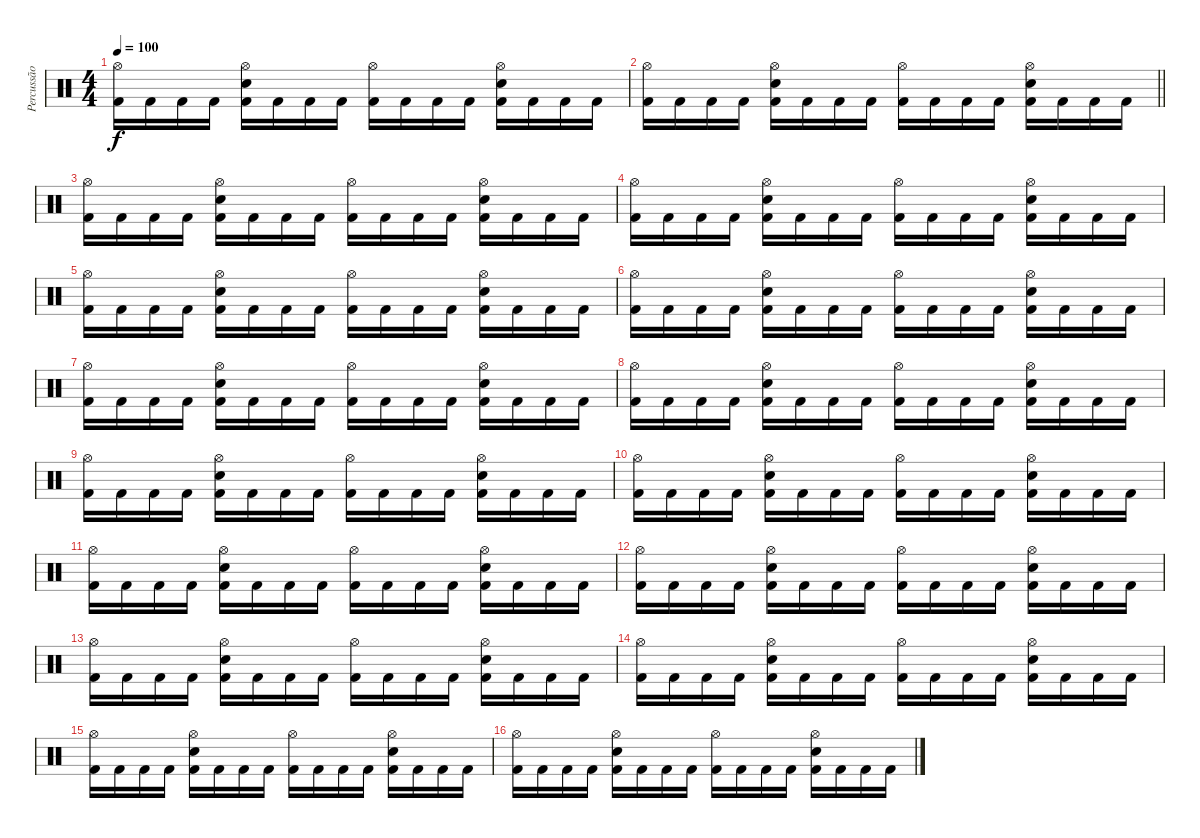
\track ("Percussão" "Percussão") {instrument percussion}
\staff {score}
\articulation defaults
\ts (4 4)
\tempo 100
\clef neutral
\ks c
("Hi-Hat (open)" "Kick (hit) 2").16{dy f} "Kick (hit) 2".16 "Kick (hit) 2".16 "Kick (hit) 2".16 ("Hi-Hat (open)" "Electric Snare (hit)" "Kick (hit) 2").16 "Kick (hit) 2".16 "Kick (hit) 2".16 "Kick (hit) 2".16 ("Hi-Hat (open)" "Kick (hit) 2").16 "Kick (hit) 2".16 "Kick (hit) 2".16 "Kick (hit) 2".16 ("Hi-Hat (open)" "Electric Snare (hit)" "Kick (hit) 2").16 "Kick (hit) 2".16 "Kick (hit) 2".16 "Kick (hit) 2".16 |
\barLineRight lightlight
("Hi-Hat (open)" "Kick (hit) 2").16 "Kick (hit) 2".16 "Kick (hit) 2".16 "Kick (hit) 2".16 ("Hi-Hat (open)" "Electric Snare (hit)" "Kick (hit) 2").16 "Kick (hit) 2".16 "Kick (hit) 2".16 "Kick (hit) 2".16 ("Hi-Hat (open)" "Kick (hit) 2").16 "Kick (hit) 2".16 "Kick (hit) 2".16 "Kick (hit) 2".16 ("Hi-Hat (open)" "Electric Snare (hit)" "Kick (hit) 2").16 "Kick (hit) 2".16 "Kick (hit) 2".16 "Kick (hit) 2".16 |
("Hi-Hat (open)" "Kick (hit) 2").16 "Kick (hit) 2".16 "Kick (hit) 2".16 "Kick (hit) 2".16 ("Hi-Hat (open)" "Electric Snare (hit)" "Kick (hit) 2").16 "Kick (hit) 2".16 "Kick (hit) 2".16 "Kick (hit) 2".16 ("Hi-Hat (open)" "Kick (hit) 2").16 "Kick (hit) 2".16 "Kick (hit) 2".16 "Kick (hit) 2".16 ("Hi-Hat (open)" "Electric Snare (hit)" "Kick (hit) 2").16 "Kick (hit) 2".16 "Kick (hit) 2".16 "Kick (hit) 2".16 |
("Hi-Hat (open)" "Kick (hit) 2").16 "Kick (hit) 2".16 "Kick (hit) 2".16 "Kick (hit) 2".16 ("Hi-Hat (open)" "Electric Snare (hit)" "Kick (hit) 2").16 "Kick (hit) 2".16 "Kick (hit) 2".16 "Kick (hit) 2".16 ("Hi-Hat (open)" "Kick (hit) 2").16 "Kick (hit) 2".16 "Kick (hit) 2".16 "Kick (hit) 2".16 ("Hi-Hat (open)" "Electric Snare (hit)" "Kick (hit) 2").16 "Kick (hit) 2".16 "Kick (hit) 2".16 "Kick (hit) 2".16 |
("Hi-Hat (open)" "Kick (hit) 2").16 "Kick (hit) 2".16 "Kick (hit) 2".16 "Kick (hit) 2".16 ("Hi-Hat (open)" "Electric Snare (hit)" "Kick (hit) 2").16 "Kick (hit) 2".16 "Kick (hit) 2".16 "Kick (hit) 2".16 ("Hi-Hat (open)" "Kick (hit) 2").16 "Kick (hit) 2".16 "Kick (hit) 2".16 "Kick (hit) 2".16 ("Hi-Hat (open)" "Electric Snare (hit)" "Kick (hit) 2").16 "Kick (hit) 2".16 "Kick (hit) 2".16 "Kick (hit) 2".16 |
("Hi-Hat (open)" "Kick (hit) 2").16 "Kick (hit) 2".16 "Kick (hit) 2".16 "Kick (hit) 2".16 ("Hi-Hat (open)" "Electric Snare (hit)" "Kick (hit) 2").16 "Kick (hit) 2".16 "Kick (hit) 2".16 "Kick (hit) 2".16 ("Hi-Hat (open)" "Kick (hit) 2").16 "Kick (hit) 2".16 "Kick (hit) 2".16 "Kick (hit) 2".16 ("Hi-Hat (open)" "Electric Snare (hit)" "Kick (hit) 2").16 "Kick (hit) 2".16 "Kick (hit) 2".16 "Kick (hit) 2".16 |
("Hi-Hat (open)" "Kick (hit) 2").16 "Kick (hit) 2".16 "Kick (hit) 2".16 "Kick (hit) 2".16 ("Hi-Hat (open)" "Electric Snare (hit)" "Kick (hit) 2").16 "Kick (hit) 2".16 "Kick (hit) 2".16 "Kick (hit) 2".16 ("Hi-Hat (open)" "Kick (hit) 2").16 "Kick (hit) 2".16 "Kick (hit) 2".16 "Kick (hit) 2".16 ("Hi-Hat (open)" "Electric Snare (hit)" "Kick (hit) 2").16 "Kick (hit) 2".16 "Kick (hit) 2".16 "Kick (hit) 2".16 |
("Hi-Hat (open)" "Kick (hit) 2").16 "Kick (hit) 2".16 "Kick (hit) 2".16 "Kick (hit) 2".16 ("Hi-Hat (open)" "Electric Snare (hit)" "Kick (hit) 2").16 "Kick (hit) 2".16 "Kick (hit) 2".16 "Kick (hit) 2".16 ("Hi-Hat (open)" "Kick (hit) 2").16 "Kick (hit) 2".16 "Kick (hit) 2".16 "Kick (hit) 2".16 ("Hi-Hat (open)" "Electric Snare (hit)" "Kick (hit) 2").16 "Kick (hit) 2".16 "Kick (hit) 2".16 "Kick (hit) 2".16 |
("Hi-Hat (open)" "Kick (hit) 2").16 "Kick (hit) 2".16 "Kick (hit) 2".16 "Kick (hit) 2".16 ("Hi-Hat (open)" "Electric Snare (hit)" "Kick (hit) 2").16 "Kick (hit) 2".16 "Kick (hit) 2".16 "Kick (hit) 2".16 ("Hi-Hat (open)" "Kick (hit) 2").16 "Kick (hit) 2".16 "Kick (hit) 2".16 "Kick (hit) 2".16 ("Hi-Hat (open)" "Electric Snare (hit)" "Kick (hit) 2").16 "Kick (hit) 2".16 "Kick (hit) 2".16 "Kick (hit) 2".16 |
("Hi-Hat (open)" "Kick (hit) 2").16 "Kick (hit) 2".16 "Kick (hit) 2".16 "Kick (hit) 2".16 ("Hi-Hat (open)" "Electric Snare (hit)" "Kick (hit) 2").16 "Kick (hit) 2".16 "Kick (hit) 2".16 "Kick (hit) 2".16 ("Hi-Hat (open)" "Kick (hit) 2").16 "Kick (hit) 2".16 "Kick (hit) 2".16 "Kick (hit) 2".16 ("Hi-Hat (open)" "Electric Snare (hit)" "Kick (hit) 2").16 "Kick (hit) 2".16 "Kick (hit) 2".16 "Kick (hit) 2".16 |
("Hi-Hat (open)" "Kick (hit) 2").16 "Kick (hit) 2".16 "Kick (hit) 2".16 "Kick (hit) 2".16 ("Hi-Hat (open)" "Electric Snare (hit)" "Kick (hit) 2").16 "Kick (hit) 2".16 "Kick (hit) 2".16 "Kick (hit) 2".16 ("Hi-Hat (open)" "Kick (hit) 2").16 "Kick (hit) 2".16 "Kick (hit) 2".16 "Kick (hit) 2".16 ("Hi-Hat (open)" "Electric Snare (hit)" "Kick (hit) 2").16 "Kick (hit) 2".16 "Kick (hit) 2".16 "Kick (hit) 2".16 |
("Hi-Hat (open)" "Kick (hit) 2").16 "Kick (hit) 2".16 "Kick (hit) 2".16 "Kick (hit) 2".16 ("Hi-Hat (open)" "Electric Snare (hit)" "Kick (hit) 2").16 "Kick (hit) 2".16 "Kick (hit) 2".16 "Kick (hit) 2".16 ("Hi-Hat (open)" "Kick (hit) 2").16 "Kick (hit) 2".16 "Kick (hit) 2".16 "Kick (hit) 2".16 ("Hi-Hat (open)" "Electric Snare (hit)" "Kick (hit) 2").16 "Kick (hit) 2".16 "Kick (hit) 2".16 "Kick (hit) 2".16 |
("Hi-Hat (open)" "Kick (hit) 2").16 "Kick (hit) 2".16 "Kick (hit) 2".16 "Kick (hit) 2".16 ("Hi-Hat (open)" "Electric Snare (hit)" "Kick (hit) 2").16 "Kick (hit) 2".16 "Kick (hit) 2".16 "Kick (hit) 2".16 ("Hi-Hat (open)" "Kick (hit) 2").16 "Kick (hit) 2".16 "Kick (hit) 2".16 "Kick (hit) 2".16 ("Hi-Hat (open)" "Electric Snare (hit)" "Kick (hit) 2").16 "Kick (hit) 2".16 "Kick (hit) 2".16 "Kick (hit) 2".16 |
("Hi-Hat (open)" "Kick (hit) 2").16 "Kick (hit) 2".16 "Kick (hit) 2".16 "Kick (hit) 2".16 ("Hi-Hat (open)" "Electric Snare (hit)" "Kick (hit) 2").16 "Kick (hit) 2".16 "Kick (hit) 2".16 "Kick (hit) 2".16 ("Hi-Hat (open)" "Kick (hit) 2").16 "Kick (hit) 2".16 "Kick (hit) 2".16 "Kick (hit) 2".16 ("Hi-Hat (open)" "Electric Snare (hit)" "Kick (hit) 2").16 "Kick (hit) 2".16 "Kick (hit) 2".16 "Kick (hit) 2".16 |
("Hi-Hat (open)" "Kick (hit) 2").16 "Kick (hit) 2".16 "Kick (hit) 2".16 "Kick (hit) 2".16 ("Hi-Hat (open)" "Electric Snare (hit)" "Kick (hit) 2").16 "Kick (hit) 2".16 "Kick (hit) 2".16 "Kick (hit) 2".16 ("Hi-Hat (open)" "Kick (hit) 2").16 "Kick (hit) 2".16 "Kick (hit) 2".16 "Kick (hit) 2".16 ("Hi-Hat (open)" "Electric Snare (hit)" "Kick (hit) 2").16 "Kick (hit) 2".16 "Kick (hit) 2".16 "Kick (hit) 2".16 |
("Hi-Hat (open)" "Kick (hit) 2").16 "Kick (hit) 2".16 "Kick (hit) 2".16 "Kick (hit) 2".16 ("Hi-Hat (open)" "Electric Snare (hit)" "Kick (hit) 2").16 "Kick (hit) 2".16 "Kick (hit) 2".16 "Kick (hit) 2".16 ("Hi-Hat (open)" "Kick (hit) 2").16 "Kick (hit) 2".16 "Kick (hit) 2".16 "Kick (hit) 2".16 ("Hi-Hat (open)" "Electric Snare (hit)" "Kick (hit) 2").16 "Kick (hit) 2".16 "Kick (hit) 2".16 "Kick (hit) 2".16
